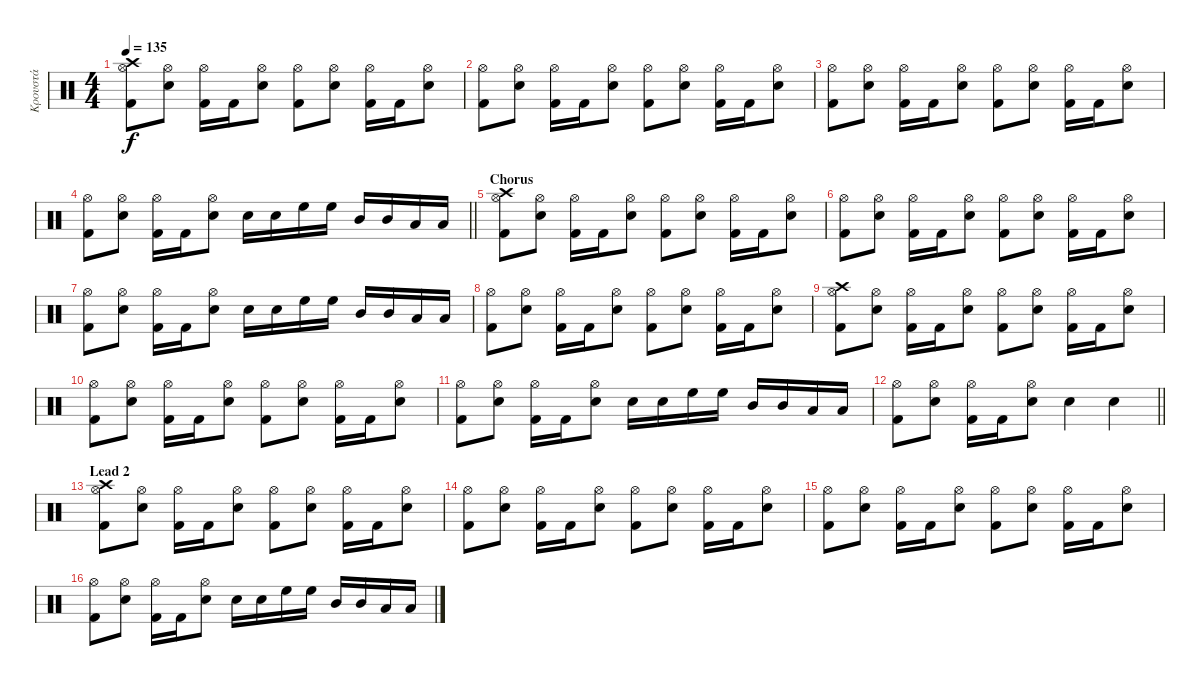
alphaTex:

\track ("Κρουστά" "Κρουστά") {instrument percussion}
\staff {score}
\articulation defaults
\ts (4 4)
\tempo 135
\clef neutral
\ks c
("Crash high (hit)" "Hi-Hat (open)" "Kick (hit) 2").8{dy f} ("Snare (hit) 2" "Hi-Hat (open)").8 ("Hi-Hat (open)" "Kick (hit) 2").16 "Kick (hit) 2".16 ("Snare (hit) 2" "Hi-Hat (open)").8 ("Hi-Hat (open)" "Kick (hit) 2").8 ("Snare (hit) 2" "Hi-Hat (open)").8 ("Hi-Hat (open)" "Kick (hit) 2").16 "Kick (hit) 2".16 ("Snare (hit) 2" "Hi-Hat (open)").8 |
("Hi-Hat (open)" "Kick (hit) 2").8 ("Snare (hit) 2" "Hi-Hat (open)").8 ("Hi-Hat (open)" "Kick (hit) 2").16 "Kick (hit) 2".16 ("Snare (hit) 2" "Hi-Hat (open)").8 ("Hi-Hat (open)" "Kick (hit) 2").8 ("Snare (hit) 2" "Hi-Hat (open)").8 ("Hi-Hat (open)" "Kick (hit) 2").16 "Kick (hit) 2".16 ("Snare (hit) 2" "Hi-Hat (open)").8 |
("Hi-Hat (open)" "Kick (hit) 2").8 ("Snare (hit) 2" "Hi-Hat (open)").8 ("Hi-Hat (open)" "Kick (hit) 2").16 "Kick (hit) 2".16 ("Snare (hit) 2" "Hi-Hat (open)").8 ("Hi-Hat (open)" "Kick (hit) 2").8 ("Snare (hit) 2" "Hi-Hat (open)").8 ("Hi-Hat (open)" "Kick (hit) 2").16 "Kick (hit) 2".16 ("Snare (hit) 2" "Hi-Hat (open)").8 |
\barLineRight lightlight
("Hi-Hat (open)" "Kick (hit) 2").8 ("Snare (hit) 2" "Hi-Hat (open)").8 ("Hi-Hat (open)" "Kick (hit) 2").16 "Kick (hit) 2".16 ("Snare (hit) 2" "Hi-Hat (open)").8 "Snare (hit) 2".16 "Snare (hit) 2".16 "High Floor Tom (hit)".16 "High Floor Tom (hit)".16 "Mid Tom (hit)".16 "Mid Tom (hit)".16 "Low Tom (hit)".16 "Low Tom (hit)".16 |
\section ("" "Chorus")
("Crash high (hit)" "Hi-Hat (open)" "Kick (hit) 2").8 ("Snare (hit) 2" "Hi-Hat (open)").8 ("Hi-Hat (open)" "Kick (hit) 2").16 "Kick (hit) 2".16 ("Snare (hit) 2" "Hi-Hat (open)").8 ("Hi-Hat (open)" "Kick (hit) 2").8 ("Snare (hit) 2" "Hi-Hat (open)").8 ("Hi-Hat (open)" "Kick (hit) 2").16 "Kick (hit) 2".16 ("Snare (hit) 2" "Hi-Hat (open)").8 |
("Hi-Hat (open)" "Kick (hit) 2").8 ("Snare (hit) 2" "Hi-Hat (open)").8 ("Hi-Hat (open)" "Kick (hit) 2").16 "Kick (hit) 2".16 ("Snare (hit) 2" "Hi-Hat (open)").8 ("Hi-Hat (open)" "Kick (hit) 2").8 ("Snare (hit) 2" "Hi-Hat (open)").8 ("Hi-Hat (open)" "Kick (hit) 2").16 "Kick (hit) 2".16 ("Snare (hit) 2" "Hi-Hat (open)").8 |
("Hi-Hat (open)" "Kick (hit) 2").8 ("Snare (hit) 2" "Hi-Hat (open)").8 ("Hi-Hat (open)" "Kick (hit) 2").16 "Kick (hit) 2".16 ("Snare (hit) 2" "Hi-Hat (open)").8 "Snare (hit) 2".16 "Snare (hit) 2".16 "High Floor Tom (hit)".16 "High Floor Tom (hit)".16 "Mid Tom (hit)".16 "Mid Tom (hit)".16 "Low Tom (hit)".16 "Low Tom (hit)".16 |
("Hi-Hat (open)" "Kick (hit) 2").8 ("Snare (hit) 2" "Hi-Hat (open)").8 ("Hi-Hat (open)" "Kick (hit) 2").16 "Kick (hit) 2".16 ("Snare (hit) 2" "Hi-Hat (open)").8 ("Hi-Hat (open)" "Kick (hit) 2").8 ("Snare (hit) 2" "Hi-Hat (open)").8 ("Hi-Hat (open)" "Kick (hit) 2").16 "Kick (hit) 2".16 ("Snare (hit) 2" "Hi-Hat (open)").8 |
("Crash high (hit)" "Hi-Hat (open)" "Kick (hit) 2").8 ("Snare (hit) 2" "Hi-Hat (open)").8 ("Hi-Hat (open)" "Kick (hit) 2").16 "Kick (hit) 2".16 ("Snare (hit) 2" "Hi-Hat (open)").8 ("Hi-Hat (open)" "Kick (hit) 2").8 ("Snare (hit) 2" "Hi-Hat (open)").8 ("Hi-Hat (open)" "Kick (hit) 2").16 "Kick (hit) 2".16 ("Snare (hit) 2" "Hi-Hat (open)").8 |
("Hi-Hat (open)" "Kick (hit) 2").8 ("Snare (hit) 2" "Hi-Hat (open)").8 ("Hi-Hat (open)" "Kick (hit) 2").16 "Kick (hit) 2".16 ("Snare (hit) 2" "Hi-Hat (open)").8 ("Hi-Hat (open)" "Kick (hit) 2").8 ("Snare (hit) 2" "Hi-Hat (open)").8 ("Hi-Hat (open)" "Kick (hit) 2").16 "Kick (hit) 2".16 ("Snare (hit) 2" "Hi-Hat (open)").8 |
("Hi-Hat (open)" "Kick (hit) 2").8 ("Snare (hit) 2" "Hi-Hat (open)").8 ("Hi-Hat (open)" "Kick (hit) 2").16 "Kick (hit) 2".16 ("Snare (hit) 2" "Hi-Hat (open)").8 "Snare (hit) 2".16 "Snare (hit) 2".16 "High Floor Tom (hit)".16 "High Floor Tom (hit)".16 "Mid Tom (hit)".16 "Mid Tom (hit)".16 "Low Tom (hit)".16 "Low Tom (hit)".16 |
\barLineRight lightlight
("Hi-Hat (open)" "Kick (hit) 2").8 ("Snare (hit) 2" "Hi-Hat (open)").8 ("Hi-Hat (open)" "Kick (hit) 2").16 "Kick (hit) 2".16 ("Snare (hit) 2" "Hi-Hat (open)").8 "Snare (hit) 2".4 "Snare (hit) 2".4 |
\section ("" "Lead 2")
("Crash high (hit)" "Hi-Hat (open)" "Kick (hit) 2").8 ("Snare (hit) 2" "Hi-Hat (open)").8 ("Hi-Hat (open)" "Kick (hit) 2").16 "Kick (hit) 2".16 ("Snare (hit) 2" "Hi-Hat (open)").8 ("Hi-Hat (open)" "Kick (hit) 2").8 ("Snare (hit) 2" "Hi-Hat (open)").8 ("Hi-Hat (open)" "Kick (hit) 2").16 "Kick (hit) 2".16 ("Snare (hit) 2" "Hi-Hat (open)").8 |
("Hi-Hat (open)" "Kick (hit) 2").8 ("Snare (hit) 2" "Hi-Hat (open)").8 ("Hi-Hat (open)" "Kick (hit) 2").16 "Kick (hit) 2".16 ("Snare (hit) 2" "Hi-Hat (open)").8 ("Hi-Hat (open)" "Kick (hit) 2").8 ("Snare (hit) 2" "Hi-Hat (open)").8 ("Hi-Hat (open)" "Kick (hit) 2").16 "Kick (hit) 2".16 ("Snare (hit) 2" "Hi-Hat (open)").8 |
("Hi-Hat (open)" "Kick (hit) 2").8 ("Snare (hit) 2" "Hi-Hat (open)").8 ("Hi-Hat (open)" "Kick (hit) 2").16 "Kick (hit) 2".16 ("Snare (hit) 2" "Hi-Hat (open)").8 ("Hi-Hat (open)" "Kick (hit) 2").8 ("Snare (hit) 2" "Hi-Hat (open)").8 ("Hi-Hat (open)" "Kick (hit) 2").16 "Kick (hit) 2".16 ("Snare (hit) 2" "Hi-Hat (open)").8 |
("Hi-Hat (open)" "Kick (hit) 2").8 ("Snare (hit) 2" "Hi-Hat (open)").8 ("Hi-Hat (open)" "Kick (hit) 2").16 "Kick (hit) 2".16 ("Snare (hit) 2" "Hi-Hat (open)").8 "Snare (hit) 2".16 "Snare (hit) 2".16 "High Floor Tom (hit)".16 "High Floor Tom (hit)".16 "Mid Tom (hit)".16 "Mid Tom (hit)".16 "Low Tom (hit)".16 "Low Tom (hit)".16
